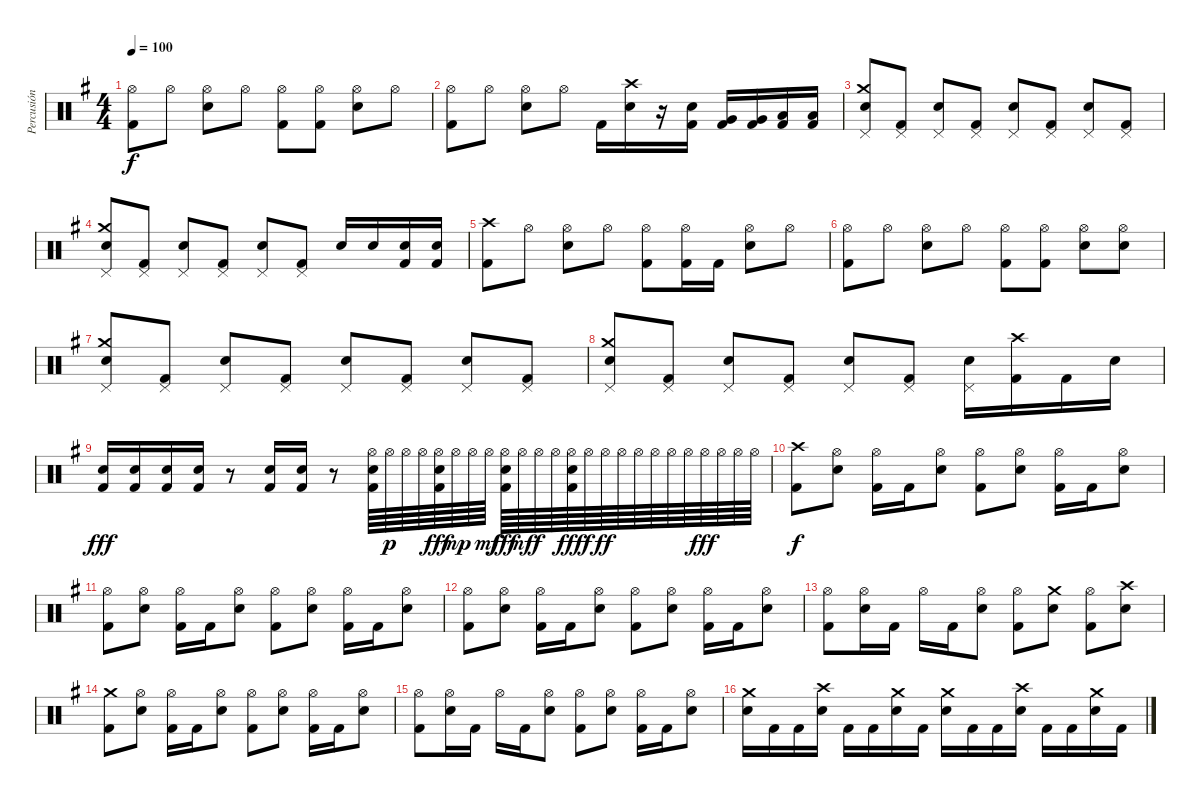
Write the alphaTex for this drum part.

\track ("Percusión" "Percusión") {instrument percussion}
\staff {score}
\articulation defaults
\ts (4 4)
\tempo 100
\clef neutral
\ks g
("Hi-Hat (open)" "Kick (hit) 2").8{dy f} "Hi-Hat (open)".8 ("Hi-Hat (open)" "Electric Snare (hit)").8 "Hi-Hat (open)".8 ("Hi-Hat (open)" "Kick (hit) 2").8 ("Hi-Hat (open)" "Kick (hit) 2").8 ("Hi-Hat (open)" "Electric Snare (hit)").8 "Hi-Hat (open)".8 |
("Hi-Hat (open)" "Kick (hit) 2").8 "Hi-Hat (open)".8 ("Hi-Hat (open)" "Electric Snare (hit)").8 "Hi-Hat (open)".8 "Kick (hit) 2".16 ("Crash high (hit)" "Electric Snare (hit)").16 r.16 ("Electric Snare (hit)" "Kick (hit) 2").16 ("Very Low Tom (hit)" "Kick (hit) 2").16 ("Very Low Tom (hit)" "Kick (hit) 2").16 ("Low Floor Tom (hit)" "Kick (hit) 2").16 ("Low Floor Tom (hit)" "Kick (hit) 2").16 |
("Crash medium (hit)" "Pedal Hi-Hat (hit)" "Electric Snare (hit)").8 ("Pedal Hi-Hat (hit)" "Kick (hit) 2").8 ("Pedal Hi-Hat (hit)" "Electric Snare (hit)").8 ("Pedal Hi-Hat (hit)" "Kick (hit) 2").8 ("Pedal Hi-Hat (hit)" "Electric Snare (hit)").8 ("Pedal Hi-Hat (hit)" "Kick (hit) 2").8 ("Pedal Hi-Hat (hit)" "Electric Snare (hit)").8 ("Pedal Hi-Hat (hit)" "Kick (hit) 2").8 |
("Crash medium (hit)" "Pedal Hi-Hat (hit)" "Electric Snare (hit)").8 ("Pedal Hi-Hat (hit)" "Kick (hit) 2").8 ("Pedal Hi-Hat (hit)" "Electric Snare (hit)").8 ("Pedal Hi-Hat (hit)" "Kick (hit) 2").8 ("Pedal Hi-Hat (hit)" "Electric Snare (hit)").8 ("Pedal Hi-Hat (hit)" "Kick (hit) 2").8 "Electric Snare (hit)".16 "Electric Snare (hit)".16 ("Electric Snare (hit)" "Kick (hit) 2").16 ("Electric Snare (hit)" "Kick (hit) 2").16 |
("Crash high (hit)" "Kick (hit) 2").8 "Hi-Hat (open)".8 ("Hi-Hat (open)" "Electric Snare (hit)").8 "Hi-Hat (open)".8 ("Hi-Hat (open)" "Kick (hit) 2").8 ("Hi-Hat (open)" "Kick (hit) 2").16 "Kick (hit) 2".16 ("Hi-Hat (open)" "Electric Snare (hit)").8 "Hi-Hat (open)".8 |
("Hi-Hat (open)" "Kick (hit) 2").8 "Hi-Hat (open)".8 ("Hi-Hat (open)" "Electric Snare (hit)").8 "Hi-Hat (open)".8 ("Hi-Hat (open)" "Kick (hit) 2").8 ("Hi-Hat (open)" "Kick (hit) 2").8 ("Hi-Hat (open)" "Electric Snare (hit)").8 ("Hi-Hat (open)" "Electric Snare (hit)").8 |
("Crash medium (hit)" "Pedal Hi-Hat (hit)" "Electric Snare (hit)").8 ("Pedal Hi-Hat (hit)" "Kick (hit) 2").8 ("Pedal Hi-Hat (hit)" "Electric Snare (hit)").8 ("Pedal Hi-Hat (hit)" "Kick (hit) 2").8 ("Pedal Hi-Hat (hit)" "Electric Snare (hit)").8 ("Pedal Hi-Hat (hit)" "Kick (hit) 2").8 ("Pedal Hi-Hat (hit)" "Electric Snare (hit)").8 ("Pedal Hi-Hat (hit)" "Kick (hit) 2").8 |
("Crash medium (hit)" "Pedal Hi-Hat (hit)" "Electric Snare (hit)").8 ("Pedal Hi-Hat (hit)" "Kick (hit) 2").8 ("Pedal Hi-Hat (hit)" "Electric Snare (hit)").8 ("Pedal Hi-Hat (hit)" "Kick (hit) 2").8 ("Pedal Hi-Hat (hit)" "Electric Snare (hit)").8 ("Pedal Hi-Hat (hit)" "Kick (hit) 2").8 ("Pedal Hi-Hat (hit)" "Electric Snare (hit)").16 ("Crash high (hit)" "Kick (hit) 2").16 "Kick (hit) 2".16 "Electric Snare (hit)".16 |
("Electric Snare (hit)" "Kick (hit) 2").16{dy fff} ("Electric Snare (hit)" "Kick (hit) 2").16 ("Electric Snare (hit)" "Kick (hit) 2").16 ("Electric Snare (hit)" "Kick (hit) 2").16 r.8 ("Electric Snare (hit)" "Kick (hit) 2").16 ("Electric Snare (hit)" "Kick (hit) 2").16 r.8 ("Hi-Hat (open)" "Electric Snare (hit)" "Kick (hit) 2").64 "Hi-Hat (open)".64{dy p} "Hi-Hat (open)".64 "Hi-Hat (open)".64 ("Hi-Hat (open)" "Electric Snare (hit)" "Kick (hit) 2").64{dy fff} "Hi-Hat (open)".64{dy mp} "Hi-Hat (open)".64 "Hi-Hat (open)".64{dy mf} ("Hi-Hat (open)" "Electric Snare (hit)" "Kick (hit) 2").64{dy fff} "Hi-Hat (open)".64{dy mf} "Hi-Hat (open)".64{dy f} "Hi-Hat (open)".64 ("Hi-Hat (open)" "Electric Snare (hit)" "Kick (hit) 2").64{dy fff} "Hi-Hat (open)".64{dy f} "Hi-Hat (open)".64{dy ff} "Hi-Hat (open)".64 "Hi-Hat (open)".64 "Hi-Hat (open)".64 "Hi-Hat (open)".64 "Hi-Hat (open)".64 "Hi-Hat (open)".64{dy fff} "Hi-Hat (open)".64 "Hi-Hat (open)".64 "Hi-Hat (open)".64 |
("Crash high (hit)" "Kick (hit) 2").8{dy f} ("Hi-Hat (open)" "Electric Snare (hit)").8 ("Hi-Hat (open)" "Kick (hit) 2").16 "Kick (hit) 2".16 ("Hi-Hat (open)" "Electric Snare (hit)").8 ("Hi-Hat (open)" "Kick (hit) 2").8 ("Hi-Hat (open)" "Electric Snare (hit)").8 ("Hi-Hat (open)" "Kick (hit) 2").16 "Kick (hit) 2".16 ("Hi-Hat (open)" "Electric Snare (hit)").8 |
("Hi-Hat (open)" "Kick (hit) 2").8 ("Hi-Hat (open)" "Electric Snare (hit)").8 ("Hi-Hat (open)" "Kick (hit) 2").16 "Kick (hit) 2".16 ("Hi-Hat (open)" "Electric Snare (hit)").8 ("Hi-Hat (open)" "Kick (hit) 2").8 ("Hi-Hat (open)" "Electric Snare (hit)").8 ("Hi-Hat (open)" "Kick (hit) 2").16 "Kick (hit) 2".16 ("Hi-Hat (open)" "Electric Snare (hit)").8 |
("Hi-Hat (open)" "Kick (hit) 2").8 ("Hi-Hat (open)" "Electric Snare (hit)").8 ("Hi-Hat (open)" "Kick (hit) 2").16 "Kick (hit) 2".16 ("Hi-Hat (open)" "Electric Snare (hit)").8 ("Hi-Hat (open)" "Kick (hit) 2").8 ("Hi-Hat (open)" "Electric Snare (hit)").8 ("Hi-Hat (open)" "Kick (hit) 2").16 "Kick (hit) 2".16 ("Hi-Hat (open)" "Electric Snare (hit)").8 |
("Hi-Hat (open)" "Kick (hit) 2").8 ("Hi-Hat (open)" "Electric Snare (hit)").16 "Kick (hit) 2".16 "Hi-Hat (open)".16 "Kick (hit) 2".16 ("Hi-Hat (open)" "Electric Snare (hit)").8 ("Hi-Hat (open)" "Kick (hit) 2").8 ("Crash medium (hit)" "Electric Snare (hit)").8 ("Hi-Hat (open)" "Kick (hit) 2").8 ("Crash high (hit)" "Electric Snare (hit)").8 |
("Crash medium (hit)" "Kick (hit) 2").8 ("Hi-Hat (open)" "Electric Snare (hit)").8 ("Hi-Hat (open)" "Kick (hit) 2").16 "Kick (hit) 2".16 ("Hi-Hat (open)" "Electric Snare (hit)").8 ("Hi-Hat (open)" "Kick (hit) 2").8 ("Hi-Hat (open)" "Electric Snare (hit)").8 ("Hi-Hat (open)" "Kick (hit) 2").16 "Kick (hit) 2".16 ("Hi-Hat (open)" "Electric Snare (hit)").8 |
("Hi-Hat (open)" "Kick (hit) 2").8 ("Hi-Hat (open)" "Electric Snare (hit)").16 "Kick (hit) 2".16 "Hi-Hat (open)".16 "Kick (hit) 2".16 ("Hi-Hat (open)" "Electric Snare (hit)").8 ("Hi-Hat (open)" "Kick (hit) 2").8 ("Hi-Hat (open)" "Electric Snare (hit)").8 ("Hi-Hat (open)" "Kick (hit) 2").16 "Kick (hit) 2".16 ("Hi-Hat (open)" "Electric Snare (hit)").8 |
("Crash medium (hit)" "Electric Snare (hit)").16 "Kick (hit) 2".16 "Kick (hit) 2".16 ("Crash high (hit)" "Electric Snare (hit)").16 "Kick (hit) 2".16 "Kick (hit) 2".16 ("Crash medium (hit)" "Electric Snare (hit)").16 "Kick (hit) 2".16 ("Crash medium (hit)" "Electric Snare (hit)").16 "Kick (hit) 2".16 "Kick (hit) 2".16 ("Crash high (hit)" "Electric Snare (hit)").16 "Kick (hit) 2".16 "Kick (hit) 2".16 ("Crash medium (hit)" "Electric Snare (hit)").16 "Kick (hit) 2".16
